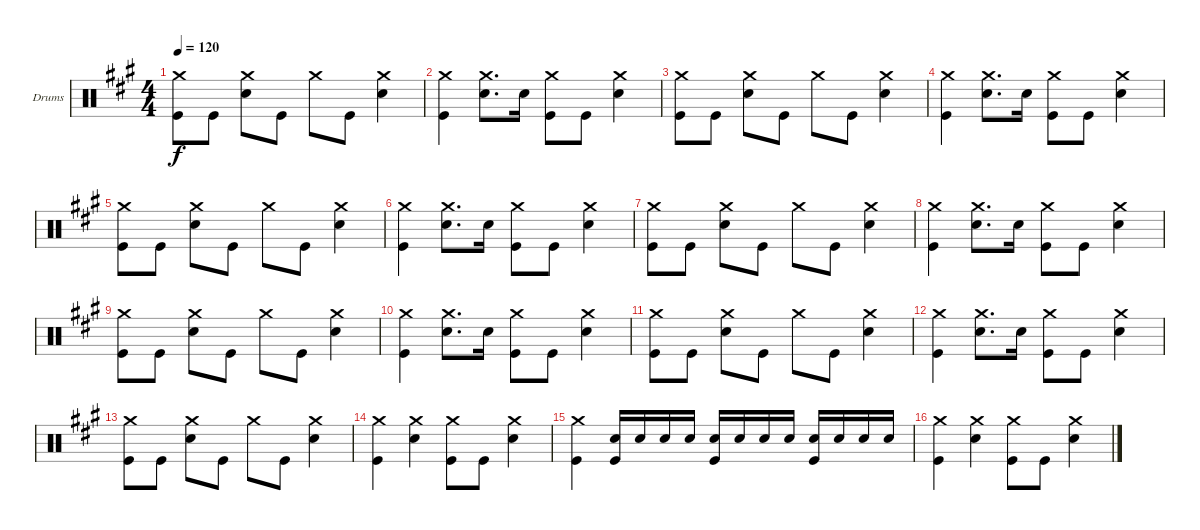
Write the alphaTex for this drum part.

\defaultSystemsLayout 4
\bracketExtendMode groupsimilarinstruments
\firstSystemTrackNameOrientation horizontal
\otherSystemsTrackNameOrientation horizontal
\track ("Drum" "Drums") {instrument percussion}
\staff {score}
\articulation defaults
\ts (4 4)
\tempo 120
\clef neutral
\scale
1.05801
\ks a
("Crash medium (hit)" "Kick (hit)").8{dy f} "Kick (hit)".8 ("Crash medium (hit)" "Snare (hit) 2").8 "Kick (hit)".8 "Crash medium (hit)".8 "Kick (hit)".8 ("Crash medium (hit)" "Snare (hit) 2").4 |
\scale
0.941992 ("Crash medium (hit)" "Kick (hit)").4 ("Crash medium (hit)" "Snare (hit) 2").8{d} "Snare (hit) 2".16 ("Crash medium (hit)" "Kick (hit)").8 "Kick (hit)".8 ("Crash medium (hit)" "Snare (hit) 2").4 |
\scale
1.05801 ("Crash medium (hit)" "Kick (hit)").8 "Kick (hit)".8 ("Crash medium (hit)" "Snare (hit) 2").8 "Kick (hit)".8 "Crash medium (hit)".8 "Kick (hit)".8 ("Crash medium (hit)" "Snare (hit) 2").4 |
\scale
0.941992 ("Crash medium (hit)" "Kick (hit)").4 ("Crash medium (hit)" "Snare (hit) 2").8{d} "Snare (hit) 2".16 ("Crash medium (hit)" "Kick (hit)").8 "Kick (hit)".8 ("Crash medium (hit)" "Snare (hit) 2").4 |
\scale
1.05801 ("Crash medium (hit)" "Kick (hit)").8 "Kick (hit)".8 ("Crash medium (hit)" "Snare (hit) 2").8 "Kick (hit)".8 "Crash medium (hit)".8 "Kick (hit)".8 ("Crash medium (hit)" "Snare (hit) 2").4 |
\scale
0.941992 ("Crash medium (hit)" "Kick (hit)").4 ("Crash medium (hit)" "Snare (hit) 2").8{d} "Snare (hit) 2".16 ("Crash medium (hit)" "Kick (hit)").8 "Kick (hit)".8 ("Crash medium (hit)" "Snare (hit) 2").4 |
\scale
1.05801 ("Crash medium (hit)" "Kick (hit)").8 "Kick (hit)".8 ("Crash medium (hit)" "Snare (hit) 2").8 "Kick (hit)".8 "Crash medium (hit)".8 "Kick (hit)".8 ("Crash medium (hit)" "Snare (hit) 2").4 |
\scale
0.941992 ("Crash medium (hit)" "Kick (hit)").4 ("Crash medium (hit)" "Snare (hit) 2").8{d} "Snare (hit) 2".16 ("Crash medium (hit)" "Kick (hit)").8 "Kick (hit)".8 ("Crash medium (hit)" "Snare (hit) 2").4 |
\scale
1.05801 ("Crash medium (hit)" "Kick (hit)").8 "Kick (hit)".8 ("Crash medium (hit)" "Snare (hit) 2").8 "Kick (hit)".8 "Crash medium (hit)".8 "Kick (hit)".8 ("Crash medium (hit)" "Snare (hit) 2").4 |
\scale
0.941992 ("Crash medium (hit)" "Kick (hit)").4 ("Crash medium (hit)" "Snare (hit) 2").8{d} "Snare (hit) 2".16 ("Crash medium (hit)" "Kick (hit)").8 "Kick (hit)".8 ("Crash medium (hit)" "Snare (hit) 2").4 |
\scale
1.05801 ("Crash medium (hit)" "Kick (hit)").8 "Kick (hit)".8 ("Crash medium (hit)" "Snare (hit) 2").8 "Kick (hit)".8 "Crash medium (hit)".8 "Kick (hit)".8 ("Crash medium (hit)" "Snare (hit) 2").4 |
\scale
0.941992 ("Crash medium (hit)" "Kick (hit)").4 ("Crash medium (hit)" "Snare (hit) 2").8{d} "Snare (hit) 2".16 ("Crash medium (hit)" "Kick (hit)").8 "Kick (hit)".8 ("Crash medium (hit)" "Snare (hit) 2").4 |
\scale
1.05801 ("Crash medium (hit)" "Kick (hit)").8 "Kick (hit)".8 ("Crash medium (hit)" "Snare (hit) 2").8 "Kick (hit)".8 "Crash medium (hit)".8 "Kick (hit)".8 ("Crash medium (hit)" "Snare (hit) 2").4 |
\scale
0.941992 ("Crash medium (hit)" "Kick (hit)").4 ("Crash medium (hit)" "Snare (hit) 2").4 ("Crash medium (hit)" "Kick (hit)").8 "Kick (hit)".8 ("Crash medium (hit)" "Snare (hit) 2").4 |
\scale
1.05801 ("Crash medium (hit)" "Kick (hit)").4 ("Kick (hit)" "Snare (hit) 2").16 "Snare (hit) 2".16 "Snare (hit) 2".16 "Snare (hit) 2".16 ("Kick (hit)" "Snare (hit) 2").16 "Snare (hit) 2".16 "Snare (hit) 2".16 "Snare (hit) 2".16 ("Kick (hit)" "Snare (hit) 2").16 "Snare (hit) 2".16 "Snare (hit) 2".16 "Snare (hit) 2".16 |
\scale
0.941992 ("Crash medium (hit)" "Kick (hit)").4 ("Crash medium (hit)" "Snare (hit) 2").4 ("Crash medium (hit)" "Kick (hit)").8 "Kick (hit)".8 ("Crash medium (hit)" "Snare (hit) 2").4
